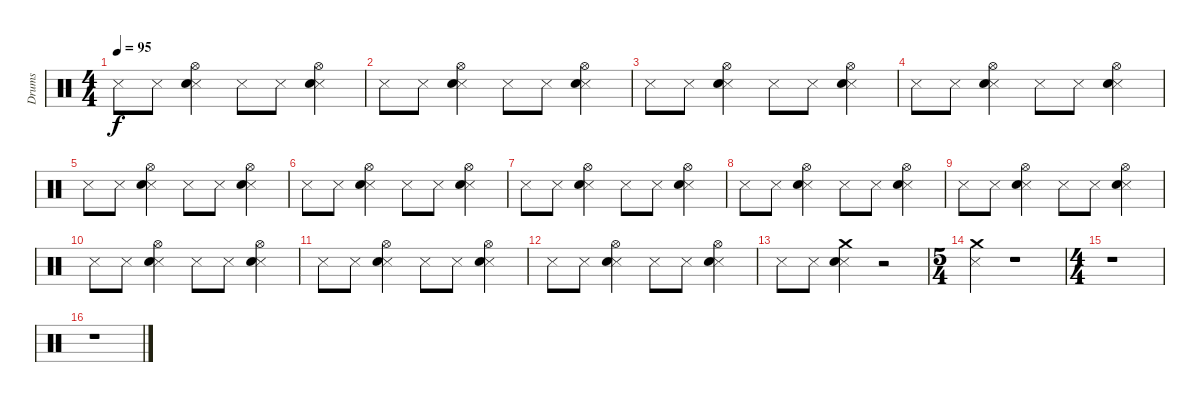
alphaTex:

\track ("Drums" "Drums") {instrument percussion}
\staff {score}
\articulation defaults
\ts (4 4)
\tempo 95
\clef neutral
\ks c "Snare (side stick) 3".8{dy f} "Snare (side stick) 3".8
("Snare (side stick) 3" "Hi-Hat (open)" "Snare (hit) 2").4 "Snare (side stick) 3".8 "Snare (side stick) 3".8 ("Snare (side stick) 3" "Hi-Hat (open)" "Snare (hit) 2").4 |
"Snare (side stick) 3".8 "Snare (side stick) 3".8 ("Snare (side stick) 3" "Hi-Hat (open)" "Snare (hit) 2").4 "Snare (side stick) 3".8 "Snare (side stick) 3".8 ("Snare (side stick) 3" "Hi-Hat (open)" "Snare (hit) 2").4 |
"Snare (side stick) 3".8 "Snare (side stick) 3".8 ("Snare (side stick) 3" "Hi-Hat (open)" "Snare (hit) 2").4 "Snare (side stick) 3".8 "Snare (side stick) 3".8 ("Snare (side stick) 3" "Hi-Hat (open)" "Snare (hit) 2").4 |
"Snare (side stick) 3".8 "Snare (side stick) 3".8 ("Snare (side stick) 3" "Hi-Hat (open)" "Snare (hit) 2").4 "Snare (side stick) 3".8 "Snare (side stick) 3".8 ("Snare (side stick) 3" "Hi-Hat (open)" "Snare (hit) 2").4 |
"Snare (side stick) 3".8 "Snare (side stick) 3".8 ("Snare (side stick) 3" "Hi-Hat (open)" "Snare (hit) 2").4 "Snare (side stick) 3".8 "Snare (side stick) 3".8 ("Snare (side stick) 3" "Hi-Hat (open)" "Snare (hit) 2").4 |
"Snare (side stick) 3".8 "Snare (side stick) 3".8 ("Snare (side stick) 3" "Hi-Hat (open)" "Snare (hit) 2").4 "Snare (side stick) 3".8 "Snare (side stick) 3".8 ("Snare (side stick) 3" "Hi-Hat (open)" "Snare (hit) 2").4 |
"Snare (side stick) 3".8 "Snare (side stick) 3".8 ("Snare (side stick) 3" "Hi-Hat (open)" "Snare (hit) 2").4 "Snare (side stick) 3".8 "Snare (side stick) 3".8 ("Snare (side stick) 3" "Hi-Hat (open)" "Snare (hit) 2").4 |
"Snare (side stick) 3".8 "Snare (side stick) 3".8 ("Snare (side stick) 3" "Hi-Hat (open)" "Snare (hit) 2").4 "Snare (side stick) 3".8 "Snare (side stick) 3".8 ("Snare (side stick) 3" "Hi-Hat (open)" "Snare (hit) 2").4 |
"Snare (side stick) 3".8 "Snare (side stick) 3".8 ("Snare (side stick) 3" "Hi-Hat (open)" "Snare (hit) 2").4 "Snare (side stick) 3".8 "Snare (side stick) 3".8 ("Snare (side stick) 3" "Hi-Hat (open)" "Snare (hit) 2").4 |
"Snare (side stick) 3".8 "Snare (side stick) 3".8 ("Snare (side stick) 3" "Hi-Hat (open)" "Snare (hit) 2").4 "Snare (side stick) 3".8 "Snare (side stick) 3".8 ("Snare (side stick) 3" "Hi-Hat (open)" "Snare (hit) 2").4 |
"Snare (side stick) 3".8 "Snare (side stick) 3".8 ("Snare (side stick) 3" "Hi-Hat (open)" "Snare (hit) 2").4 "Snare (side stick) 3".8 "Snare (side stick) 3".8 ("Snare (side stick) 3" "Hi-Hat (open)" "Snare (hit) 2").4 |
"Snare (side stick) 3".8 "Snare (side stick) 3".8 ("Snare (side stick) 3" "Hi-Hat (open)" "Snare (hit) 2").4 "Snare (side stick) 3".8 "Snare (side stick) 3".8 ("Snare (side stick) 3" "Hi-Hat (open)" "Snare (hit) 2").4 |
"Snare (side stick) 3".8 "Snare (side stick) 3".8 ("Snare (side stick) 3" "Crash medium (hit)" "Snare (hit) 2").4 r.2 |
\ts (5 4)
("Snare (side stick) 3" "Crash medium (hit)").4 r.1 |
\ts (4 4)
r.1 |
r.1
